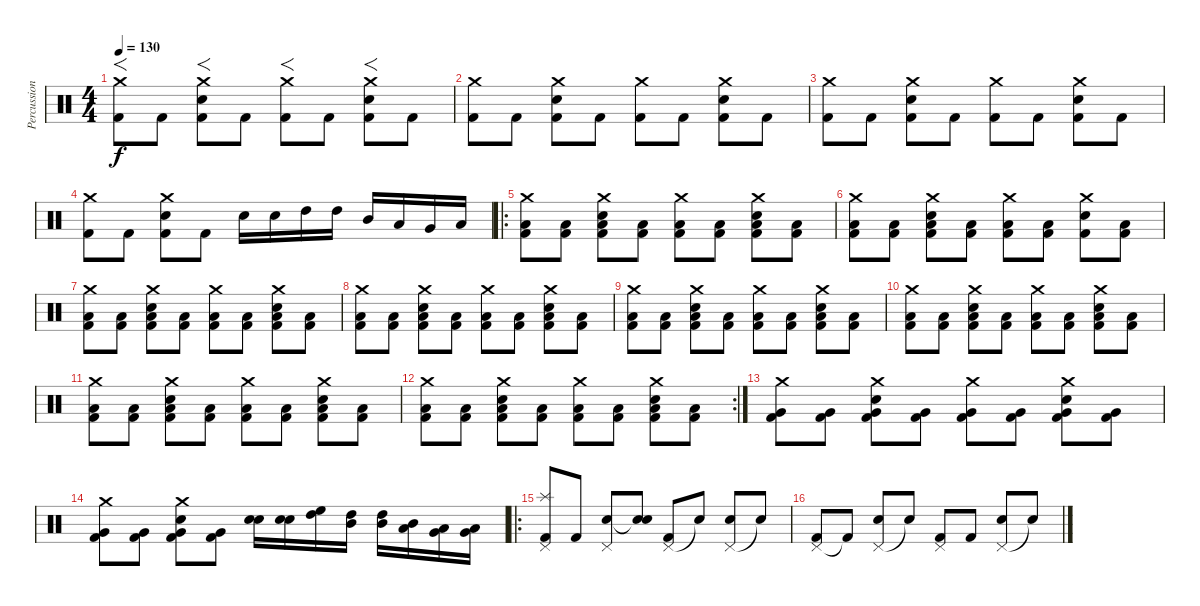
\track ("Percussion" "Percussion") {instrument percussion}
\staff {score}
\articulation defaults
\ts (4 4)
\tempo 130
\clef neutral
\ks c
("Crash medium (hit)" "Kick (hit) 2").8{f dy f} "Kick (hit) 2".8 ("Crash medium (hit)" "Electric Snare (hit)" "Kick (hit) 2").8{f} "Kick (hit) 2".8 ("Crash medium (hit)" "Kick (hit) 2").8{f} "Kick (hit) 2".8 ("Crash medium (hit)" "Electric Snare (hit)" "Kick (hit) 2").8{f} "Kick (hit) 2".8 |
("Crash medium (hit)" "Kick (hit) 2").8 "Kick (hit) 2".8 ("Crash medium (hit)" "Electric Snare (hit)" "Kick (hit) 2").8 "Kick (hit) 2".8 ("Crash medium (hit)" "Kick (hit) 2").8 "Kick (hit) 2".8 ("Crash medium (hit)" "Electric Snare (hit)" "Kick (hit) 2").8 "Kick (hit) 2".8 |
("Crash medium (hit)" "Kick (hit) 2").8 "Kick (hit) 2".8 ("Crash medium (hit)" "Electric Snare (hit)" "Kick (hit) 2").8 "Kick (hit) 2".8 ("Crash medium (hit)" "Kick (hit) 2").8 "Kick (hit) 2".8 ("Crash medium (hit)" "Electric Snare (hit)" "Kick (hit) 2").8 "Kick (hit) 2".8 |
("Crash medium (hit)" "Kick (hit) 2").8 "Kick (hit) 2".8 ("Crash medium (hit)" "Electric Snare (hit)" "Kick (hit) 2").8 "Kick (hit) 2".8 "Electric Snare (hit)".16 "Electric Snare (hit)".16 "High Tom (hit)".16 "High Tom (hit)".16 "Mid Tom (hit)".16 "Low Tom (hit)".16 "Very Low Tom (hit)".16 "Low Floor Tom (hit)".16 |
\ro
("Crash medium (hit)" "Low Floor Tom (hit)" "Kick (hit) 2").8 ("Low Floor Tom (hit)" "Kick (hit) 2").8 ("Crash medium (hit)" "Low Floor Tom (hit)" "Electric Snare (hit)" "Kick (hit) 2").8 ("Low Floor Tom (hit)" "Kick (hit) 2").8 ("Crash medium (hit)" "Low Floor Tom (hit)" "Kick (hit) 2").8 ("Low Floor Tom (hit)" "Kick (hit) 2").8 ("Crash medium (hit)" "Low Floor Tom (hit)" "Electric Snare (hit)" "Kick (hit) 2").8 ("Low Floor Tom (hit)" "Kick (hit) 2").8 |
("Crash medium (hit)" "Low Floor Tom (hit)" "Kick (hit) 2").8 ("Low Floor Tom (hit)" "Kick (hit) 2").8 ("Crash medium (hit)" "Low Floor Tom (hit)" "Electric Snare (hit)" "Kick (hit) 2").8 ("Low Floor Tom (hit)" "Kick (hit) 2").8 ("Crash medium (hit)" "Low Floor Tom (hit)" "Kick (hit) 2").8 ("Low Floor Tom (hit)" "Kick (hit) 2").8 ("Crash medium (hit)" "Electric Snare (hit)" "Kick (hit) 2").8 ("Low Floor Tom (hit)" "Kick (hit) 2").8 |
("Crash medium (hit)" "Low Floor Tom (hit)" "Kick (hit) 2").8 ("Low Floor Tom (hit)" "Kick (hit) 2").8 ("Crash medium (hit)" "Low Floor Tom (hit)" "Electric Snare (hit)" "Kick (hit) 2").8 ("Low Floor Tom (hit)" "Kick (hit) 2").8 ("Crash medium (hit)" "Low Floor Tom (hit)" "Kick (hit) 2").8 ("Low Floor Tom (hit)" "Kick (hit) 2").8 ("Crash medium (hit)" "Low Floor Tom (hit)" "Electric Snare (hit)" "Kick (hit) 2").8 ("Low Floor Tom (hit)" "Kick (hit) 2").8 |
("Crash medium (hit)" "Low Floor Tom (hit)" "Kick (hit) 2").8 ("Low Floor Tom (hit)" "Kick (hit) 2").8 ("Crash medium (hit)" "Low Floor Tom (hit)" "Electric Snare (hit)" "Kick (hit) 2").8 ("Low Floor Tom (hit)" "Kick (hit) 2").8 ("Crash medium (hit)" "Low Floor Tom (hit)" "Kick (hit) 2").8 ("Low Floor Tom (hit)" "Kick (hit) 2").8 ("Crash medium (hit)" "Low Floor Tom (hit)" "Electric Snare (hit)" "Kick (hit) 2").8 ("Low Floor Tom (hit)" "Kick (hit) 2").8 |
("Crash medium (hit)" "Low Floor Tom (hit)" "Kick (hit) 2").8 ("Low Floor Tom (hit)" "Kick (hit) 2").8 ("Crash medium (hit)" "Low Floor Tom (hit)" "Electric Snare (hit)" "Kick (hit) 2").8 ("Low Floor Tom (hit)" "Kick (hit) 2").8 ("Crash medium (hit)" "Low Floor Tom (hit)" "Kick (hit) 2").8 ("Low Floor Tom (hit)" "Kick (hit) 2").8 ("Crash medium (hit)" "Low Floor Tom (hit)" "Electric Snare (hit)" "Kick (hit) 2").8 ("Low Floor Tom (hit)" "Kick (hit) 2").8 |
("Crash medium (hit)" "Low Floor Tom (hit)" "Kick (hit) 2").8 ("Low Floor Tom (hit)" "Kick (hit) 2").8 ("Crash medium (hit)" "Low Floor Tom (hit)" "Electric Snare (hit)" "Kick (hit) 2").8 ("Low Floor Tom (hit)" "Kick (hit) 2").8 ("Crash medium (hit)" "Low Floor Tom (hit)" "Kick (hit) 2").8 ("Low Floor Tom (hit)" "Kick (hit) 2").8 ("Crash medium (hit)" "Low Floor Tom (hit)" "Electric Snare (hit)" "Kick (hit) 2").8 ("Low Floor Tom (hit)" "Kick (hit) 2").8 |
("Crash medium (hit)" "Low Floor Tom (hit)" "Kick (hit) 2").8 ("Low Floor Tom (hit)" "Kick (hit) 2").8 ("Crash medium (hit)" "Low Floor Tom (hit)" "Electric Snare (hit)" "Kick (hit) 2").8 ("Low Floor Tom (hit)" "Kick (hit) 2").8 ("Crash medium (hit)" "Low Floor Tom (hit)" "Kick (hit) 2").8 ("Low Floor Tom (hit)" "Kick (hit) 2").8 ("Crash medium (hit)" "Low Floor Tom (hit)" "Electric Snare (hit)" "Kick (hit) 2").8 ("Low Floor Tom (hit)" "Kick (hit) 2").8 |
\rc 2
("Crash medium (hit)" "Low Floor Tom (hit)" "Kick (hit) 2").8 ("Low Floor Tom (hit)" "Kick (hit) 2").8 ("Crash medium (hit)" "Low Floor Tom (hit)" "Electric Snare (hit)" "Kick (hit) 2").8 ("Low Floor Tom (hit)" "Kick (hit) 2").8 ("Crash medium (hit)" "Low Floor Tom (hit)" "Kick (hit) 2").8 ("Low Floor Tom (hit)" "Kick (hit) 2").8 ("Crash medium (hit)" "Low Floor Tom (hit)" "Electric Snare (hit)" "Kick (hit) 2").8 ("Low Floor Tom (hit)" "Kick (hit) 2").8 |
("Crash medium (hit)" "Very Low Tom (hit)" "Kick (hit) 2").8 ("Very Low Tom (hit)" "Kick (hit) 2").8 ("Crash medium (hit)" "Very Low Tom (hit)" "Electric Snare (hit)" "Kick (hit) 2").8 ("Very Low Tom (hit)" "Kick (hit) 2").8 ("Crash medium (hit)" "Very Low Tom (hit)" "Kick (hit) 2").8 ("Very Low Tom (hit)" "Kick (hit) 2").8 ("Crash medium (hit)" "Very Low Tom (hit)" "Electric Snare (hit)" "Kick (hit) 2").8 ("Very Low Tom (hit)" "Kick (hit) 2").8 |
("Crash medium (hit)" "Very Low Tom (hit)" "Kick (hit) 2").8 ("Very Low Tom (hit)" "Kick (hit) 2").8 ("Crash medium (hit)" "Very Low Tom (hit)" "Electric Snare (hit)" "Kick (hit) 2").8 ("Very Low Tom (hit)" "Kick (hit) 2").8 ("Electric Snare (hit)" "Electric Snare (hit)").16 ("Electric Snare (hit)" "Electric Snare (hit)").16 ("High Tom (hit)" "High Floor Tom (hit)").16 ("High Tom (hit)" "Mid Tom (hit)").16 ("Mid Tom (hit)" "High Tom (hit)").16 ("Low Tom (hit)" "Mid Tom (hit)").16 ("Very Low Tom (hit)" "Low Tom (hit)").16 ("Low Floor Tom (hit)" "Very Low Tom (hit)").16 |
\ro
("Splash (hit)" "Pedal Hi-Hat (hit)" "Kick (hit) 2").8 "Kick (hit) 2".8 ("Pedal Hi-Hat (hit)" "Electric Snare (hit)").8 ("Snare (hit)" "Snare (hit)"{t}).8 ("Pedal Hi-Hat (hit)" "Kick (hit) 2").8 "Snare (hit)"{t}.8 ("Pedal Hi-Hat (hit)" "Electric Snare (hit)").8 "Snare (hit)"{t}.8 |
("Pedal Hi-Hat (hit)" "Kick (hit) 2").8 "Kick (hit) 2"{t}.8 ("Pedal Hi-Hat (hit)" "Electric Snare (hit)").8 "Snare (hit)"{t}.8 ("Pedal Hi-Hat (hit)" "Kick (hit) 2").8 "Kick (hit) 2".8 ("Pedal Hi-Hat (hit)" "Electric Snare (hit)").8 "Snare (hit)"{t}.8
